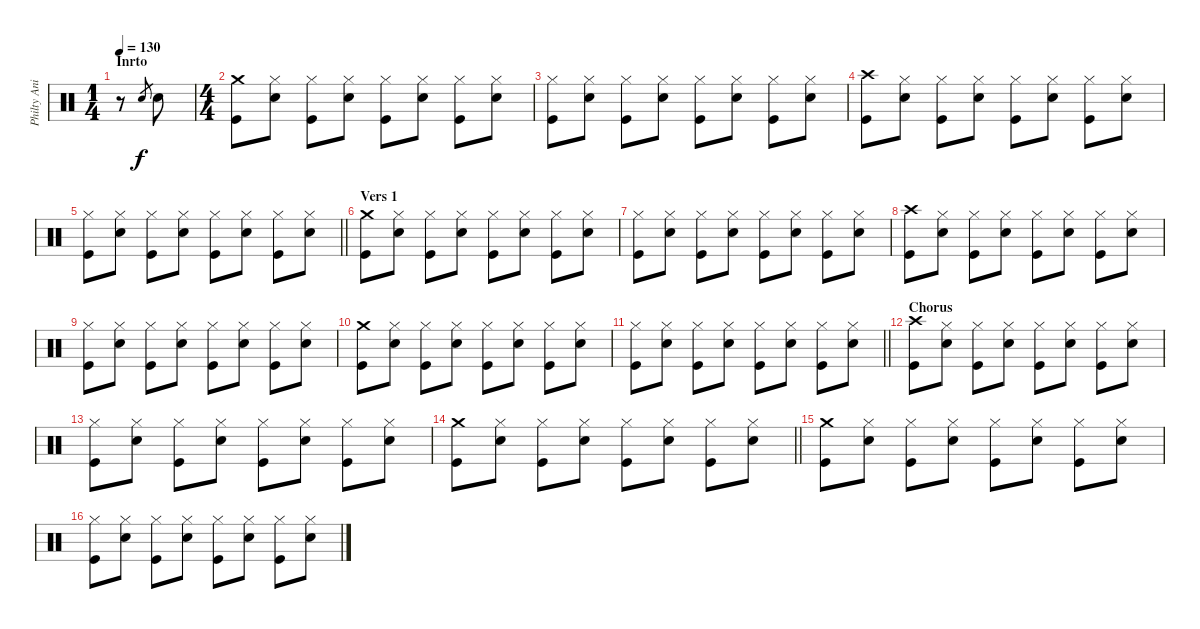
\track ("Philty Animal Taylor" "Philty Ani") {instrument percussion}
\staff {score}
\articulation defaults
\ts (1 4)
\section ("" "Inrto")
\tempo 130
\clef neutral
\ks c
r.8{dy f} "Electric Snare (hit)".8{gr} "Electric Snare (hit)".8 |
\ts (4 4)
("Crash medium (hit)" "Kick (hit)").8 ("Hi-Hat (closed)" "Electric Snare (hit)").8 ("Hi-Hat (closed)" "Kick (hit)").8 ("Hi-Hat (closed)" "Electric Snare (hit)").8 ("Hi-Hat (closed)" "Kick (hit)").8 ("Hi-Hat (closed)" "Electric Snare (hit)").8 ("Hi-Hat (closed)" "Kick (hit)").8 ("Hi-Hat (closed)" "Electric Snare (hit)").8 |
("Hi-Hat (closed)" "Kick (hit)").8 ("Hi-Hat (closed)" "Electric Snare (hit)").8 ("Hi-Hat (closed)" "Kick (hit)").8 ("Hi-Hat (closed)" "Electric Snare (hit)").8 ("Hi-Hat (closed)" "Kick (hit)").8 ("Hi-Hat (closed)" "Electric Snare (hit)").8 ("Hi-Hat (closed)" "Kick (hit)").8 ("Hi-Hat (closed)" "Electric Snare (hit)").8 |
("Crash high (hit)" "Kick (hit)").8 ("Hi-Hat (closed)" "Electric Snare (hit)").8 ("Hi-Hat (closed)" "Kick (hit)").8 ("Hi-Hat (closed)" "Electric Snare (hit)").8 ("Hi-Hat (closed)" "Kick (hit)").8 ("Hi-Hat (closed)" "Electric Snare (hit)").8 ("Hi-Hat (closed)" "Kick (hit)").8 ("Hi-Hat (closed)" "Electric Snare (hit)").8 |
\barLineRight lightlight
("Hi-Hat (closed)" "Kick (hit)").8 ("Hi-Hat (closed)" "Electric Snare (hit)").8 ("Hi-Hat (closed)" "Kick (hit)").8 ("Hi-Hat (closed)" "Electric Snare (hit)").8 ("Hi-Hat (closed)" "Kick (hit)").8 ("Hi-Hat (closed)" "Electric Snare (hit)").8 ("Hi-Hat (closed)" "Kick (hit)").8 ("Hi-Hat (closed)" "Electric Snare (hit)").8 |
\section ("" "Vers 1")
("Crash medium (hit)" "Kick (hit)").8 ("Hi-Hat (closed)" "Electric Snare (hit)").8 ("Hi-Hat (closed)" "Kick (hit)").8 ("Hi-Hat (closed)" "Electric Snare (hit)").8 ("Hi-Hat (closed)" "Kick (hit)").8 ("Hi-Hat (closed)" "Electric Snare (hit)").8 ("Hi-Hat (closed)" "Kick (hit)").8 ("Hi-Hat (closed)" "Electric Snare (hit)").8 |
("Hi-Hat (closed)" "Kick (hit)").8 ("Hi-Hat (closed)" "Electric Snare (hit)").8 ("Hi-Hat (closed)" "Kick (hit)").8 ("Hi-Hat (closed)" "Electric Snare (hit)").8 ("Hi-Hat (closed)" "Kick (hit)").8 ("Hi-Hat (closed)" "Electric Snare (hit)").8 ("Hi-Hat (closed)" "Kick (hit)").8 ("Hi-Hat (closed)" "Electric Snare (hit)").8 |
("Crash high (hit)" "Kick (hit)").8 ("Hi-Hat (closed)" "Electric Snare (hit)").8 ("Hi-Hat (closed)" "Kick (hit)").8 ("Hi-Hat (closed)" "Electric Snare (hit)").8 ("Hi-Hat (closed)" "Kick (hit)").8 ("Hi-Hat (closed)" "Electric Snare (hit)").8 ("Hi-Hat (closed)" "Kick (hit)").8 ("Hi-Hat (closed)" "Electric Snare (hit)").8 |
("Hi-Hat (closed)" "Kick (hit)").8 ("Hi-Hat (closed)" "Electric Snare (hit)").8 ("Hi-Hat (closed)" "Kick (hit)").8 ("Hi-Hat (closed)" "Electric Snare (hit)").8 ("Hi-Hat (closed)" "Kick (hit)").8 ("Hi-Hat (closed)" "Electric Snare (hit)").8 ("Hi-Hat (closed)" "Kick (hit)").8 ("Hi-Hat (closed)" "Electric Snare (hit)").8 |
("Crash medium (hit)" "Kick (hit)").8 ("Hi-Hat (closed)" "Electric Snare (hit)").8 ("Hi-Hat (closed)" "Kick (hit)").8 ("Hi-Hat (closed)" "Electric Snare (hit)").8 ("Hi-Hat (closed)" "Kick (hit)").8 ("Hi-Hat (closed)" "Electric Snare (hit)").8 ("Hi-Hat (closed)" "Kick (hit)").8 ("Hi-Hat (closed)" "Electric Snare (hit)").8 |
\barLineRight lightlight
("Hi-Hat (closed)" "Kick (hit)").8 ("Hi-Hat (closed)" "Electric Snare (hit)").8 ("Hi-Hat (closed)" "Kick (hit)").8 ("Hi-Hat (closed)" "Electric Snare (hit)").8 ("Hi-Hat (closed)" "Kick (hit)").8 ("Hi-Hat (closed)" "Electric Snare (hit)").8 ("Hi-Hat (closed)" "Kick (hit)").8 ("Hi-Hat (closed)" "Electric Snare (hit)").8 |
\section ("" "Chorus")
("Crash high (hit)" "Kick (hit)").8 ("Hi-Hat (closed)" "Electric Snare (hit)").8 ("Hi-Hat (closed)" "Kick (hit)").8 ("Hi-Hat (closed)" "Electric Snare (hit)").8 ("Hi-Hat (closed)" "Kick (hit)").8 ("Hi-Hat (closed)" "Electric Snare (hit)").8 ("Hi-Hat (closed)" "Kick (hit)").8 ("Hi-Hat (closed)" "Electric Snare (hit)").8 |
("Hi-Hat (closed)" "Kick (hit)").8 ("Hi-Hat (closed)" "Electric Snare (hit)").8 ("Hi-Hat (closed)" "Kick (hit)").8 ("Hi-Hat (closed)" "Electric Snare (hit)").8 ("Hi-Hat (closed)" "Kick (hit)").8 ("Hi-Hat (closed)" "Electric Snare (hit)").8 ("Hi-Hat (closed)" "Kick (hit)").8 ("Hi-Hat (closed)" "Electric Snare (hit)").8 |
\barLineRight lightlight
("Crash medium (hit)" "Kick (hit)").8 ("Hi-Hat (closed)" "Electric Snare (hit)").8 ("Hi-Hat (closed)" "Kick (hit)").8 ("Hi-Hat (closed)" "Electric Snare (hit)").8 ("Hi-Hat (closed)" "Kick (hit)").8 ("Hi-Hat (closed)" "Electric Snare (hit)").8 ("Hi-Hat (closed)" "Kick (hit)").8 ("Hi-Hat (closed)" "Electric Snare (hit)").8 |
("Crash medium (hit)" "Kick (hit)").8 ("Hi-Hat (closed)" "Electric Snare (hit)").8 ("Hi-Hat (closed)" "Kick (hit)").8 ("Hi-Hat (closed)" "Electric Snare (hit)").8 ("Hi-Hat (closed)" "Kick (hit)").8 ("Hi-Hat (closed)" "Electric Snare (hit)").8 ("Hi-Hat (closed)" "Kick (hit)").8 ("Hi-Hat (closed)" "Electric Snare (hit)").8 |
("Hi-Hat (closed)" "Kick (hit)").8 ("Hi-Hat (closed)" "Electric Snare (hit)").8 ("Hi-Hat (closed)" "Kick (hit)").8 ("Hi-Hat (closed)" "Electric Snare (hit)").8 ("Hi-Hat (closed)" "Kick (hit)").8 ("Hi-Hat (closed)" "Electric Snare (hit)").8 ("Hi-Hat (closed)" "Kick (hit)").8 ("Hi-Hat (closed)" "Electric Snare (hit)").8
